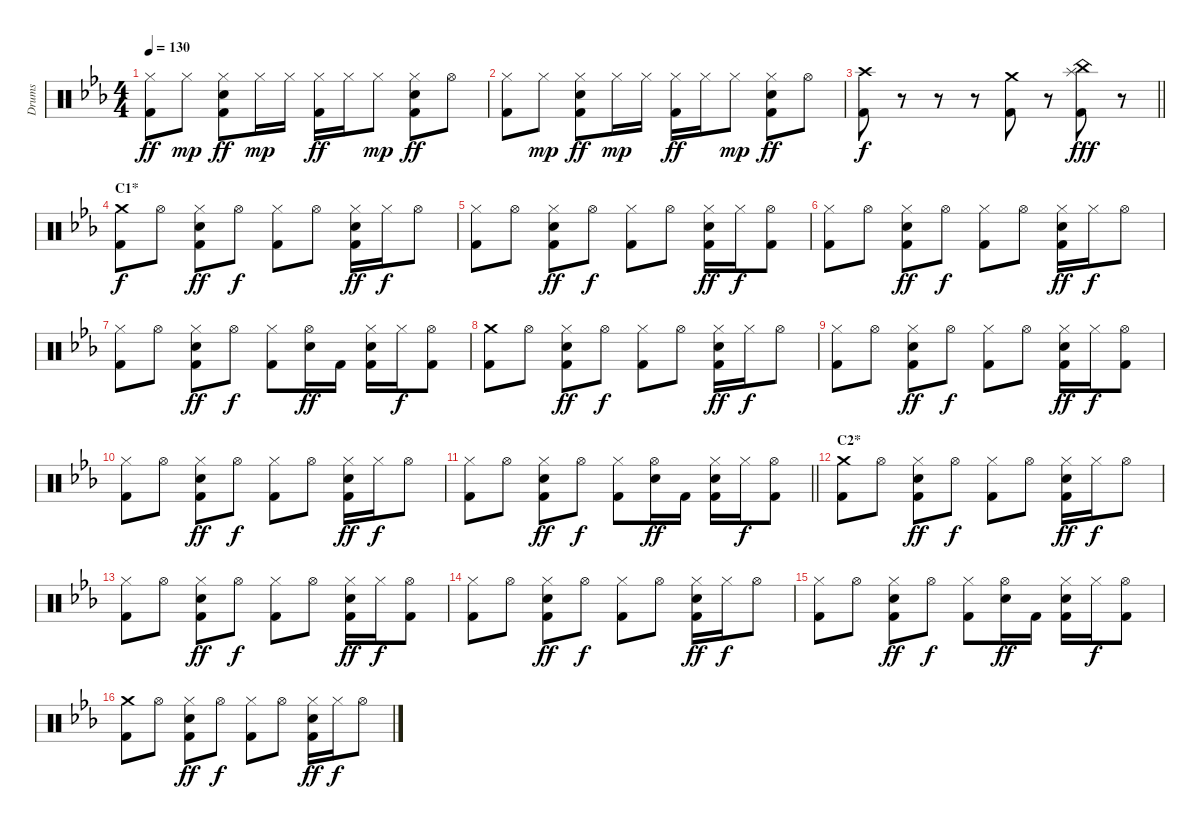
\track ("Drums" "Drums") {instrument percussion}
\staff {score}
\articulation defaults
\ts (4 4)
\tempo 130
\clef neutral
\ks eb
("Hi-Hat (closed)" "Kick (hit) 2").8{dy ff} "Hi-Hat (closed)".8{dy mp} ("Hi-Hat (closed)" "Electric Snare (hit)" "Kick (hit) 2").8{dy ff} "Hi-Hat (closed)".16{dy mp} "Hi-Hat (closed)".16 ("Hi-Hat (closed)" "Kick (hit) 2").16{dy ff} "Hi-Hat (closed)".16 "Hi-Hat (closed)".8{dy mp} ("Hi-Hat (closed)" "Electric Snare (hit)" "Kick (hit) 2").8{dy ff} "Hi-Hat (open)".8 |
("Hi-Hat (closed)" "Kick (hit) 2").8 "Hi-Hat (closed)".8{dy mp} ("Hi-Hat (closed)" "Electric Snare (hit)" "Kick (hit) 2").8{dy ff} "Hi-Hat (closed)".16{dy mp} "Hi-Hat (closed)".16 ("Hi-Hat (closed)" "Kick (hit) 2").16{dy ff} "Hi-Hat (closed)".16 "Hi-Hat (closed)".8{dy mp} ("Hi-Hat (closed)" "Electric Snare (hit)" "Kick (hit) 2").8{dy ff} "Hi-Hat (open)".8 |
\barLineRight lightlight
("Crash high (hit)" "Kick (hit) 2").8{dy f} r.8 r.8 r.8 ("Crash medium (hit)" "Kick (hit) 2").8 r.8 ("Splash (hit)" "China (hit)" "Kick (hit) 2").8{dy fff} r.8 |
\section ("" "C1*")
("Crash medium (hit)" "Kick (hit) 2").8{dy f} "Hi-Hat (open)".8 ("Hi-Hat (closed)" "Hand Clap (hit)" "Kick (hit) 2").8{dy ff} "Hi-Hat (open)".8{dy f} ("Hi-Hat (closed)" "Kick (hit) 2").8 "Hi-Hat (open)".8 ("Hi-Hat (closed)" "Hand Clap (hit)" "Kick (hit) 2").16{dy ff} "Hi-Hat (closed)".16{dy f} "Hi-Hat (open)".8 |
("Hi-Hat (closed)" "Kick (hit) 2").8 "Hi-Hat (open)".8 ("Hi-Hat (closed)" "Hand Clap (hit)" "Kick (hit) 2").8{dy ff} "Hi-Hat (open)".8{dy f} ("Hi-Hat (closed)" "Kick (hit) 2").8 "Hi-Hat (open)".8 ("Hi-Hat (closed)" "Hand Clap (hit)" "Kick (hit) 2").16{dy ff} "Hi-Hat (closed)".16{dy f} ("Hi-Hat (open)" "Kick (hit) 2").8 |
("Hi-Hat (closed)" "Kick (hit) 2").8 "Hi-Hat (open)".8 ("Hi-Hat (closed)" "Hand Clap (hit)" "Kick (hit) 2").8{dy ff} "Hi-Hat (open)".8{dy f} ("Hi-Hat (closed)" "Kick (hit) 2").8 "Hi-Hat (open)".8 ("Hi-Hat (closed)" "Hand Clap (hit)" "Kick (hit) 2").16{dy ff} "Hi-Hat (closed)".16{dy f} "Hi-Hat (open)".8 |
("Hi-Hat (closed)" "Kick (hit) 2").8 "Hi-Hat (open)".8 ("Hi-Hat (closed)" "Hand Clap (hit)" "Kick (hit) 2").8{dy ff} "Hi-Hat (open)".8{dy f} ("Hi-Hat (closed)" "Kick (hit) 2").8 ("Hi-Hat (open)" "Hand Clap (hit)").16{dy ff} "Kick (hit) 2".16 ("Hi-Hat (closed)" "Hand Clap (hit)" "Kick (hit) 2").16 "Hi-Hat (closed)".16{dy f} ("Hi-Hat (open)" "Kick (hit) 2").8 |
("Crash medium (hit)" "Kick (hit) 2").8 "Hi-Hat (open)".8 ("Hi-Hat (closed)" "Hand Clap (hit)" "Kick (hit) 2").8{dy ff} "Hi-Hat (open)".8{dy f} ("Hi-Hat (closed)" "Kick (hit) 2").8 "Hi-Hat (open)".8 ("Hi-Hat (closed)" "Hand Clap (hit)" "Kick (hit) 2").16{dy ff} "Hi-Hat (closed)".16{dy f} "Hi-Hat (open)".8 |
("Hi-Hat (closed)" "Kick (hit) 2").8 "Hi-Hat (open)".8 ("Hi-Hat (closed)" "Hand Clap (hit)" "Kick (hit) 2").8{dy ff} "Hi-Hat (open)".8{dy f} ("Hi-Hat (closed)" "Kick (hit) 2").8 "Hi-Hat (open)".8 ("Hi-Hat (closed)" "Hand Clap (hit)" "Kick (hit) 2").16{dy ff} "Hi-Hat (closed)".16{dy f} ("Hi-Hat (open)" "Kick (hit) 2").8 |
("Hi-Hat (closed)" "Kick (hit) 2").8 "Hi-Hat (open)".8 ("Hi-Hat (closed)" "Hand Clap (hit)" "Kick (hit) 2").8{dy ff} "Hi-Hat (open)".8{dy f} ("Hi-Hat (closed)" "Kick (hit) 2").8 "Hi-Hat (open)".8 ("Hi-Hat (closed)" "Hand Clap (hit)" "Kick (hit) 2").16{dy ff} "Hi-Hat (closed)".16{dy f} "Hi-Hat (open)".8 |
\barLineRight lightlight
("Hi-Hat (closed)" "Kick (hit) 2").8 "Hi-Hat (open)".8 ("Hi-Hat (closed)" "Hand Clap (hit)" "Kick (hit) 2").8{dy ff} "Hi-Hat (open)".8{dy f} ("Hi-Hat (closed)" "Kick (hit) 2").8 ("Hi-Hat (open)" "Hand Clap (hit)").16{dy ff} "Kick (hit) 2".16 ("Hi-Hat (closed)" "Hand Clap (hit)" "Kick (hit) 2").16 "Hi-Hat (closed)".16{dy f} ("Hi-Hat (open)" "Kick (hit) 2").8 |
\section ("" "C2*")
("Crash medium (hit)" "Kick (hit) 2").8 "Hi-Hat (open)".8 ("Hi-Hat (closed)" "Hand Clap (hit)" "Kick (hit) 2").8{dy ff} "Hi-Hat (open)".8{dy f} ("Hi-Hat (closed)" "Kick (hit) 2").8 "Hi-Hat (open)".8 ("Hi-Hat (closed)" "Hand Clap (hit)" "Kick (hit) 2").16{dy ff} "Hi-Hat (closed)".16{dy f} "Hi-Hat (open)".8 |
("Hi-Hat (closed)" "Kick (hit) 2").8 "Hi-Hat (open)".8 ("Hi-Hat (closed)" "Hand Clap (hit)" "Kick (hit) 2").8{dy ff} "Hi-Hat (open)".8{dy f} ("Hi-Hat (closed)" "Kick (hit) 2").8 "Hi-Hat (open)".8 ("Hi-Hat (closed)" "Hand Clap (hit)" "Kick (hit) 2").16{dy ff} "Hi-Hat (closed)".16{dy f} ("Hi-Hat (open)" "Kick (hit) 2").8 |
("Hi-Hat (closed)" "Kick (hit) 2").8 "Hi-Hat (open)".8 ("Hi-Hat (closed)" "Hand Clap (hit)" "Kick (hit) 2").8{dy ff} "Hi-Hat (open)".8{dy f} ("Hi-Hat (closed)" "Kick (hit) 2").8 "Hi-Hat (open)".8 ("Hi-Hat (closed)" "Hand Clap (hit)" "Kick (hit) 2").16{dy ff} "Hi-Hat (closed)".16{dy f} "Hi-Hat (open)".8 |
("Hi-Hat (closed)" "Kick (hit) 2").8 "Hi-Hat (open)".8 ("Hi-Hat (closed)" "Hand Clap (hit)" "Kick (hit) 2").8{dy ff} "Hi-Hat (open)".8{dy f} ("Hi-Hat (closed)" "Kick (hit) 2").8 ("Hi-Hat (open)" "Hand Clap (hit)").16{dy ff} "Kick (hit) 2".16 ("Hi-Hat (closed)" "Hand Clap (hit)" "Kick (hit) 2").16 "Hi-Hat (closed)".16{dy f} ("Hi-Hat (open)" "Kick (hit) 2").8 |
("Crash medium (hit)" "Kick (hit) 2").8 "Hi-Hat (open)".8 ("Hi-Hat (closed)" "Hand Clap (hit)" "Kick (hit) 2").8{dy ff} "Hi-Hat (open)".8{dy f} ("Hi-Hat (closed)" "Kick (hit) 2").8 "Hi-Hat (open)".8 ("Hi-Hat (closed)" "Hand Clap (hit)" "Kick (hit) 2").16{dy ff} "Hi-Hat (closed)".16{dy f} "Hi-Hat (open)".8
